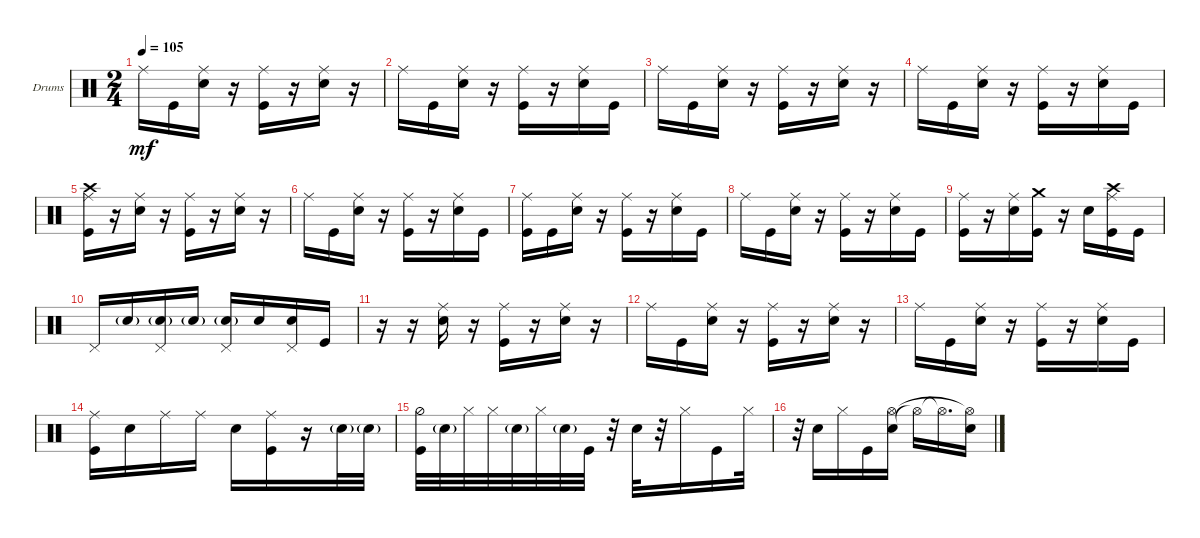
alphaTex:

\defaultSystemsLayout 4
\bracketExtendMode groupsimilarinstruments
\firstSystemTrackNameOrientation horizontal
\otherSystemsTrackNameOrientation horizontal
\track ("Godd" "Drums") {instrument percussion}
\staff {score}
\articulation defaults
\ts (2 4)
\tempo 105
\clef neutral
\ks c "Ride (middle)".16{dy mf} "Kick (hit)".16
("Ride (middle)" "Snare (hit) 2").16 r.16 ("Ride (middle)" "Kick (hit)").16 r.16 ("Ride (middle)" "Snare (hit) 2").16 r.16 |
"Ride (middle)".16 "Kick (hit)".16 ("Ride (middle)" "Snare (hit) 2").16 r.16 ("Ride (middle)" "Kick (hit)").16 r.16 ("Ride (middle)" "Snare (hit) 2").16 "Kick (hit)".16 |
"Ride (middle)".16 "Kick (hit)".16 ("Ride (middle)" "Snare (hit) 2").16 r.16 ("Ride (middle)" "Kick (hit)").16 r.16 ("Ride (middle)" "Snare (hit) 2").16 r.16 |
"Ride (middle)".16 "Kick (hit)".16 ("Ride (middle)" "Snare (hit) 2").16 r.16 ("Ride (middle)" "Kick (hit)").16 r.16 ("Ride (middle)" "Snare (hit) 2").16 "Kick (hit)".16 |
("Ride (middle)" "Crash high (hit)" "Kick (hit)").16 r.16 ("Ride (middle)" "Snare (hit) 2").16 r.16 ("Ride (middle)" "Kick (hit)").16 r.16 ("Ride (middle)" "Snare (hit) 2").16 r.16 |
"Ride (middle)".16 "Kick (hit)".16 ("Ride (middle)" "Snare (hit) 2").16 r.16 ("Ride (middle)" "Kick (hit)").16 r.16 ("Ride (middle)" "Snare (hit) 2").16 "Kick (hit)".16 |
("Ride (middle)" "Kick (hit)").16 "Kick (hit)".16 ("Ride (middle)" "Snare (hit) 2").16 r.16 ("Ride (middle)" "Kick (hit)").16 r.16 ("Ride (middle)" "Snare (hit) 2").16 "Kick (hit)".16 |
"Ride (middle)".16 "Kick (hit)".16 ("Ride (middle)" "Snare (hit) 2").16 r.16 ("Ride (middle)" "Kick (hit)").16 r.16 ("Ride (middle)" "Snare (hit) 2").16 "Kick (hit)".16 |
("Ride (middle)" "Kick (hit)").16 r.16 ("Ride (middle)" "Snare (hit) 2").16 ("Kick (hit)" "Crash medium (hit)").16 r.16 "Snare (hit) 2".16 ("Ride (middle)" "Crash high (hit)" "Kick (hit)").16 "Kick (hit)".16 |
"Pedal Hi-Hat (hit)".16 "Snare (hit) 2"{g}.16 ("Pedal Hi-Hat (hit)" "Snare (hit) 2"{g}).16 "Snare (hit) 2"{g}.16 ("Pedal Hi-Hat (hit)" "Snare (hit) 2"{g}).16 "Snare (hit) 2".16 ("Pedal Hi-Hat (hit)" "Snare (hit) 2").16 "Kick (hit)".16 |
r.16 r.16 ("Ride (middle)" "Snare (hit) 2").16 r.16 ("Ride (middle)" "Kick (hit)").16 r.16 ("Ride (middle)" "Snare (hit) 2").16 r.16 |
"Ride (middle)".16 "Kick (hit)".16 ("Ride (middle)" "Snare (hit) 2").16 r.16 ("Ride (middle)" "Kick (hit)").16 r.16 ("Ride (middle)" "Snare (hit) 2").16 r.16 |
"Ride (middle)".16 "Kick (hit)".16 ("Ride (middle)" "Snare (hit) 2").16 r.16 ("Ride (middle)" "Kick (hit)").16 r.16 ("Ride (middle)" "Snare (hit) 2").16 "Kick (hit)".16 |
("Kick (hit)" "Ride (middle)").16 "Snare (hit) 2".16 "Ride (middle)".16 "Ride (middle)".16 "Snare (hit) 2".16 ("Kick (hit)" "Ride (middle)").16 r.16 "Snare (hit) 2"{g}.32 "Snare (hit) 2"{g}.32 |
("Kick (hit)" "Hi-Hat (half)").32 "Snare (hit) 2"{g}.32 "Hi-Hat (closed)".32 "Hi-Hat (closed)".32 "Snare (hit) 2"{g}.32 "Hi-Hat (closed)".32 "Snare (hit) 2"{g}.32 "Kick (hit)".32 r.32 "Snare (hit) 2".32 r.32 "Hi-Hat (closed)".16 "Kick (hit)".16 "Hi-Hat (closed)".32 |
r.32 "Snare (hit) 2".16 "Hi-Hat (closed)".16 "Kick (hit)".16 ("Snare (hit) 2" "Hi-Hat (open)").16 "Hi-Hat (open)"{t}.16 "Hi-Hat (open)"{t}.16{d} ("Snare (hit) 2" "Hi-Hat (open)"{t}).16
